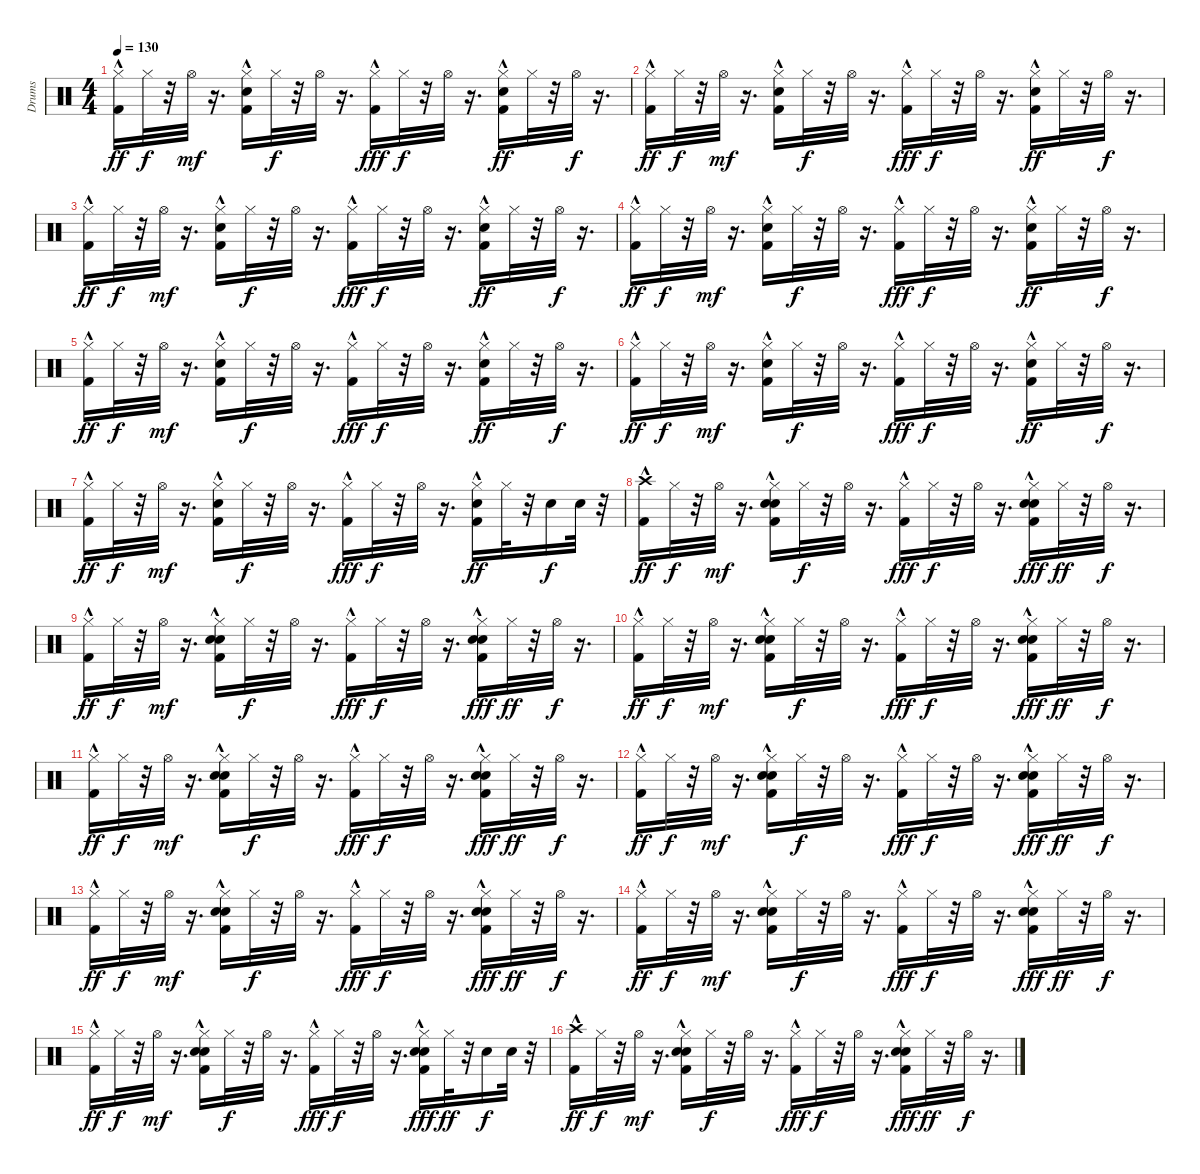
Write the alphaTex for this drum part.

\track ("Drums" "Drums") {instrument percussion}
\staff {score}
\articulation defaults
\ts (4 4)
\tempo 130
\clef neutral
\ks c
("Kick (hit) 2"{hac} "Hi-Hat (closed)").16{dy ff} "Hi-Hat (closed)".32{dy f} r.32 "Hi-Hat (open)".32{dy mf} r.16{d} ("Kick (hit) 2"{hac} "Electric Snare (hit)" "Hi-Hat (closed)").16 "Hi-Hat (closed)".32{dy f} r.32 "Hi-Hat (open)".32 r.16{d} ("Kick (hit) 2"{hac} "Hi-Hat (closed)").16{dy fff} "Hi-Hat (closed)".32{dy f} r.32 "Hi-Hat (open)".32 r.16{d} ("Kick (hit) 2"{hac} "Electric Snare (hit)" "Hi-Hat (closed)").16{dy ff} "Hi-Hat (closed)".32 r.32 "Hi-Hat (open)".32{dy f} r.16{d} |
("Kick (hit) 2"{hac} "Hi-Hat (closed)").16{dy ff} "Hi-Hat (closed)".32{dy f} r.32 "Hi-Hat (open)".32{dy mf} r.16{d} ("Kick (hit) 2"{hac} "Electric Snare (hit)" "Hi-Hat (closed)").16 "Hi-Hat (closed)".32{dy f} r.32 "Hi-Hat (open)".32 r.16{d} ("Kick (hit) 2"{hac} "Hi-Hat (closed)").16{dy fff} "Hi-Hat (closed)".32{dy f} r.32 "Hi-Hat (open)".32 r.16{d} ("Kick (hit) 2"{hac} "Electric Snare (hit)" "Hi-Hat (closed)").16{dy ff} "Hi-Hat (closed)".32 r.32 "Hi-Hat (open)".32{dy f} r.16{d} |
("Kick (hit) 2"{hac} "Hi-Hat (closed)").16{dy ff} "Hi-Hat (closed)".32{dy f} r.32 "Hi-Hat (open)".32{dy mf} r.16{d} ("Kick (hit) 2"{hac} "Electric Snare (hit)" "Hi-Hat (closed)").16 "Hi-Hat (closed)".32{dy f} r.32 "Hi-Hat (open)".32 r.16{d} ("Kick (hit) 2"{hac} "Hi-Hat (closed)").16{dy fff} "Hi-Hat (closed)".32{dy f} r.32 "Hi-Hat (open)".32 r.16{d} ("Kick (hit) 2"{hac} "Electric Snare (hit)" "Hi-Hat (closed)").16{dy ff} "Hi-Hat (closed)".32 r.32 "Hi-Hat (open)".32{dy f} r.16{d} |
("Kick (hit) 2"{hac} "Hi-Hat (closed)").16{dy ff} "Hi-Hat (closed)".32{dy f} r.32 "Hi-Hat (open)".32{dy mf} r.16{d} ("Kick (hit) 2"{hac} "Electric Snare (hit)" "Hi-Hat (closed)").16 "Hi-Hat (closed)".32{dy f} r.32 "Hi-Hat (open)".32 r.16{d} ("Kick (hit) 2"{hac} "Hi-Hat (closed)").16{dy fff} "Hi-Hat (closed)".32{dy f} r.32 "Hi-Hat (open)".32 r.16{d} ("Kick (hit) 2"{hac} "Electric Snare (hit)" "Hi-Hat (closed)").16{dy ff} "Hi-Hat (closed)".32 r.32 "Hi-Hat (open)".32{dy f} r.16{d} |
("Kick (hit) 2"{hac} "Hi-Hat (closed)").16{dy ff} "Hi-Hat (closed)".32{dy f} r.32 "Hi-Hat (open)".32{dy mf} r.16{d} ("Kick (hit) 2"{hac} "Electric Snare (hit)" "Hi-Hat (closed)").16 "Hi-Hat (closed)".32{dy f} r.32 "Hi-Hat (open)".32 r.16{d} ("Kick (hit) 2"{hac} "Hi-Hat (closed)").16{dy fff} "Hi-Hat (closed)".32{dy f} r.32 "Hi-Hat (open)".32 r.16{d} ("Kick (hit) 2"{hac} "Electric Snare (hit)" "Hi-Hat (closed)").16{dy ff} "Hi-Hat (closed)".32 r.32 "Hi-Hat (open)".32{dy f} r.16{d} |
("Kick (hit) 2"{hac} "Hi-Hat (closed)").16{dy ff} "Hi-Hat (closed)".32{dy f} r.32 "Hi-Hat (open)".32{dy mf} r.16{d} ("Kick (hit) 2"{hac} "Electric Snare (hit)" "Hi-Hat (closed)").16 "Hi-Hat (closed)".32{dy f} r.32 "Hi-Hat (open)".32 r.16{d} ("Kick (hit) 2"{hac} "Hi-Hat (closed)").16{dy fff} "Hi-Hat (closed)".32{dy f} r.32 "Hi-Hat (open)".32 r.16{d} ("Kick (hit) 2"{hac} "Electric Snare (hit)" "Hi-Hat (closed)").16{dy ff} "Hi-Hat (closed)".32 r.32 "Hi-Hat (open)".32{dy f} r.16{d} |
("Kick (hit) 2"{hac} "Hi-Hat (closed)").16{dy ff} "Hi-Hat (closed)".32{dy f} r.32 "Hi-Hat (open)".32{dy mf} r.16{d} ("Kick (hit) 2"{hac} "Electric Snare (hit)" "Hi-Hat (closed)").16 "Hi-Hat (closed)".32{dy f} r.32 "Hi-Hat (open)".32 r.16{d} ("Kick (hit) 2"{hac} "Hi-Hat (closed)").16{dy fff} "Hi-Hat (closed)".32{dy f} r.32 "Hi-Hat (open)".32 r.16{d} ("Kick (hit) 2"{hac} "Electric Snare (hit)" "Hi-Hat (closed)").16{dy ff} "Hi-Hat (closed)".32 r.32 "Electric Snare (hit)".16{dy f} "Electric Snare (hit)".32 r.32 |
("Kick (hit) 2"{hac} "Crash high (hit)").16{dy ff} "Hi-Hat (closed)".32{dy f} r.32 "Hi-Hat (open)".32{dy mf} r.16{d} ("Kick (hit) 2"{hac} "Hand Clap (hit)" "Electric Snare (hit)" "Hi-Hat (closed)").16 "Hi-Hat (closed)".32{dy f} r.32 "Hi-Hat (open)".32 r.16{d} ("Kick (hit) 2"{hac} "Hi-Hat (closed)").16{dy fff} "Hi-Hat (closed)".32{dy f} r.32 "Hi-Hat (open)".32 r.16{d} ("Kick (hit) 2"{hac} "Hand Clap (hit)" "Electric Snare (hit)" "Hi-Hat (closed)").16{dy fff} "Hi-Hat (closed)".32{dy ff} r.32 "Hi-Hat (open)".32{dy f} r.16{d} |
("Kick (hit) 2"{hac} "Hi-Hat (closed)").16{dy ff} "Hi-Hat (closed)".32{dy f} r.32 "Hi-Hat (open)".32{dy mf} r.16{d} ("Kick (hit) 2"{hac} "Hand Clap (hit)" "Electric Snare (hit)" "Hi-Hat (closed)").16 "Hi-Hat (closed)".32{dy f} r.32 "Hi-Hat (open)".32 r.16{d} ("Kick (hit) 2"{hac} "Hi-Hat (closed)").16{dy fff} "Hi-Hat (closed)".32{dy f} r.32 "Hi-Hat (open)".32 r.16{d} ("Kick (hit) 2"{hac} "Hand Clap (hit)" "Electric Snare (hit)" "Hi-Hat (closed)").16{dy fff} "Hi-Hat (closed)".32{dy ff} r.32 "Hi-Hat (open)".32{dy f} r.16{d} |
("Kick (hit) 2"{hac} "Hi-Hat (closed)").16{dy ff} "Hi-Hat (closed)".32{dy f} r.32 "Hi-Hat (open)".32{dy mf} r.16{d} ("Kick (hit) 2"{hac} "Hand Clap (hit)" "Electric Snare (hit)" "Hi-Hat (closed)").16 "Hi-Hat (closed)".32{dy f} r.32 "Hi-Hat (open)".32 r.16{d} ("Kick (hit) 2"{hac} "Hi-Hat (closed)").16{dy fff} "Hi-Hat (closed)".32{dy f} r.32 "Hi-Hat (open)".32 r.16{d} ("Kick (hit) 2"{hac} "Hand Clap (hit)" "Electric Snare (hit)" "Hi-Hat (closed)").16{dy fff} "Hi-Hat (closed)".32{dy ff} r.32 "Hi-Hat (open)".32{dy f} r.16{d} |
("Kick (hit) 2"{hac} "Hi-Hat (closed)").16{dy ff} "Hi-Hat (closed)".32{dy f} r.32 "Hi-Hat (open)".32{dy mf} r.16{d} ("Kick (hit) 2"{hac} "Hand Clap (hit)" "Electric Snare (hit)" "Hi-Hat (closed)").16 "Hi-Hat (closed)".32{dy f} r.32 "Hi-Hat (open)".32 r.16{d} ("Kick (hit) 2"{hac} "Hi-Hat (closed)").16{dy fff} "Hi-Hat (closed)".32{dy f} r.32 "Hi-Hat (open)".32 r.16{d} ("Kick (hit) 2"{hac} "Hand Clap (hit)" "Electric Snare (hit)" "Hi-Hat (closed)").16{dy fff} "Hi-Hat (closed)".32{dy ff} r.32 "Hi-Hat (open)".32{dy f} r.16{d} |
("Kick (hit) 2"{hac} "Hi-Hat (closed)").16{dy ff} "Hi-Hat (closed)".32{dy f} r.32 "Hi-Hat (open)".32{dy mf} r.16{d} ("Kick (hit) 2"{hac} "Hand Clap (hit)" "Electric Snare (hit)" "Hi-Hat (closed)").16 "Hi-Hat (closed)".32{dy f} r.32 "Hi-Hat (open)".32 r.16{d} ("Kick (hit) 2"{hac} "Hi-Hat (closed)").16{dy fff} "Hi-Hat (closed)".32{dy f} r.32 "Hi-Hat (open)".32 r.16{d} ("Kick (hit) 2"{hac} "Hand Clap (hit)" "Electric Snare (hit)" "Hi-Hat (closed)").16{dy fff} "Hi-Hat (closed)".32{dy ff} r.32 "Hi-Hat (open)".32{dy f} r.16{d} |
("Kick (hit) 2"{hac} "Hi-Hat (closed)").16{dy ff} "Hi-Hat (closed)".32{dy f} r.32 "Hi-Hat (open)".32{dy mf} r.16{d} ("Kick (hit) 2"{hac} "Hand Clap (hit)" "Electric Snare (hit)" "Hi-Hat (closed)").16 "Hi-Hat (closed)".32{dy f} r.32 "Hi-Hat (open)".32 r.16{d} ("Kick (hit) 2"{hac} "Hi-Hat (closed)").16{dy fff} "Hi-Hat (closed)".32{dy f} r.32 "Hi-Hat (open)".32 r.16{d} ("Kick (hit) 2"{hac} "Hand Clap (hit)" "Electric Snare (hit)" "Hi-Hat (closed)").16{dy fff} "Hi-Hat (closed)".32{dy ff} r.32 "Hi-Hat (open)".32{dy f} r.16{d} |
("Kick (hit) 2"{hac} "Hi-Hat (closed)").16{dy ff} "Hi-Hat (closed)".32{dy f} r.32 "Hi-Hat (open)".32{dy mf} r.16{d} ("Kick (hit) 2"{hac} "Hand Clap (hit)" "Electric Snare (hit)" "Hi-Hat (closed)").16 "Hi-Hat (closed)".32{dy f} r.32 "Hi-Hat (open)".32 r.16{d} ("Kick (hit) 2"{hac} "Hi-Hat (closed)").16{dy fff} "Hi-Hat (closed)".32{dy f} r.32 "Hi-Hat (open)".32 r.16{d} ("Kick (hit) 2"{hac} "Hand Clap (hit)" "Electric Snare (hit)" "Hi-Hat (closed)").16{dy fff} "Hi-Hat (closed)".32{dy ff} r.32 "Hi-Hat (open)".32{dy f} r.16{d} |
("Kick (hit) 2"{hac} "Hi-Hat (closed)").16{dy ff} "Hi-Hat (closed)".32{dy f} r.32 "Hi-Hat (open)".32{dy mf} r.16{d} ("Kick (hit) 2"{hac} "Hand Clap (hit)" "Electric Snare (hit)" "Hi-Hat (closed)").16 "Hi-Hat (closed)".32{dy f} r.32 "Hi-Hat (open)".32 r.16{d} ("Kick (hit) 2"{hac} "Hi-Hat (closed)").16{dy fff} "Hi-Hat (closed)".32{dy f} r.32 "Hi-Hat (open)".32 r.16{d} ("Kick (hit) 2"{hac} "Hand Clap (hit)" "Electric Snare (hit)" "Hi-Hat (closed)").16{dy fff} "Hi-Hat (closed)".32{dy ff} r.32 "Electric Snare (hit)".16{dy f} "Electric Snare (hit)".32 r.32 |
("Kick (hit) 2"{hac} "Crash high (hit)").16{dy ff} "Hi-Hat (closed)".32{dy f} r.32 "Hi-Hat (open)".32{dy mf} r.16{d} ("Kick (hit) 2"{hac} "Hand Clap (hit)" "Electric Snare (hit)" "Hi-Hat (closed)").16 "Hi-Hat (closed)".32{dy f} r.32 "Hi-Hat (open)".32 r.16{d} ("Kick (hit) 2"{hac} "Hi-Hat (closed)").16{dy fff} "Hi-Hat (closed)".32{dy f} r.32 "Hi-Hat (open)".32 r.16{d} ("Kick (hit) 2"{hac} "Hand Clap (hit)" "Electric Snare (hit)" "Hi-Hat (closed)").16{dy fff} "Hi-Hat (closed)".32{dy ff} r.32 "Hi-Hat (open)".32{dy f} r.16{d}
